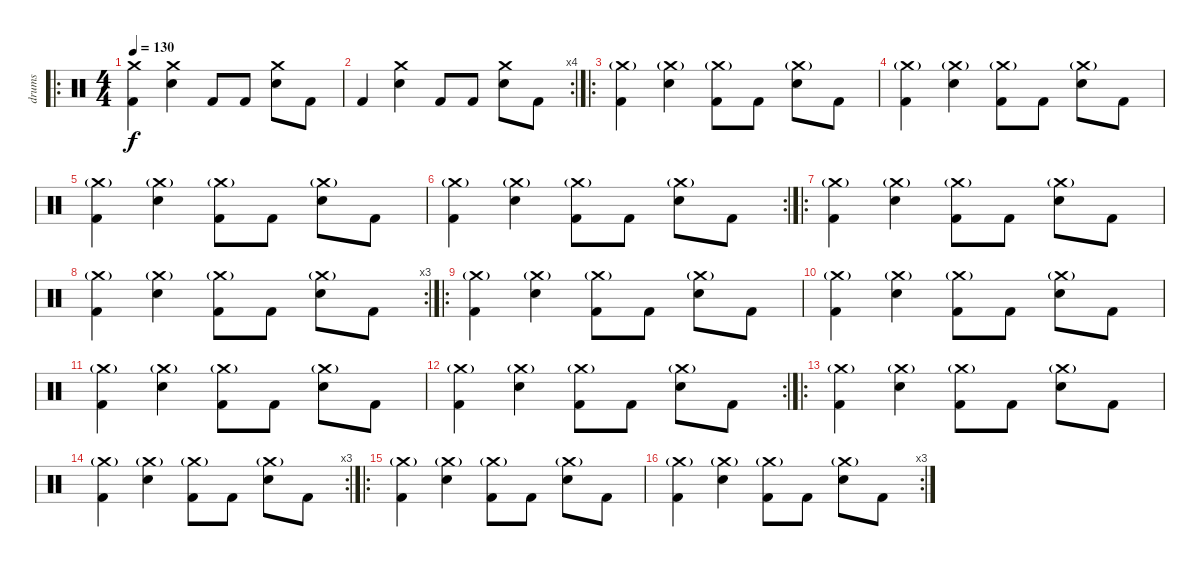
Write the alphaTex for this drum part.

\track ("drums" "drums") {instrument percussion}
\staff {score}
\articulation defaults
\ro
\ts (4 4)
\tempo 130
\clef neutral
\ks c
("Crash medium (hit)" "Kick (hit) 2").4{dy f} ("Crash medium (hit)" "Electric Snare (hit)").4 "Kick (hit) 2".8 "Kick (hit) 2".8 ("Crash medium (hit)" "Electric Snare (hit)").8 "Kick (hit) 2".8 |
\rc 4 "Kick (hit) 2".4
("Crash medium (hit)" "Electric Snare (hit)").4 "Kick (hit) 2".8 "Kick (hit) 2".8 ("Crash medium (hit)" "Electric Snare (hit)").8 "Kick (hit) 2".8 |
\ro
("Crash medium (hit)"{g} "Kick (hit) 2").4 ("Crash medium (hit)"{g} "Electric Snare (hit)").4 ("Crash medium (hit)"{g} "Kick (hit) 2").8 "Kick (hit) 2".8 ("Crash medium (hit)"{g} "Electric Snare (hit)").8 "Kick (hit) 2".8 |
("Crash medium (hit)"{g} "Kick (hit) 2").4 ("Crash medium (hit)"{g} "Electric Snare (hit)").4 ("Crash medium (hit)"{g} "Kick (hit) 2").8 "Kick (hit) 2".8 ("Crash medium (hit)"{g} "Electric Snare (hit)").8 "Kick (hit) 2".8 |
("Crash medium (hit)"{g} "Kick (hit) 2").4 ("Crash medium (hit)"{g} "Electric Snare (hit)").4 ("Crash medium (hit)"{g} "Kick (hit) 2").8 "Kick (hit) 2".8 ("Crash medium (hit)"{g} "Electric Snare (hit)").8 "Kick (hit) 2".8 |
\rc 2
("Crash medium (hit)"{g} "Kick (hit) 2").4 ("Crash medium (hit)"{g} "Electric Snare (hit)").4 ("Crash medium (hit)"{g} "Kick (hit) 2").8 "Kick (hit) 2".8 ("Crash medium (hit)"{g} "Electric Snare (hit)").8 "Kick (hit) 2".8 |
\ro
("Crash medium (hit)"{g} "Kick (hit) 2").4 ("Crash medium (hit)"{g} "Electric Snare (hit)").4 ("Crash medium (hit)"{g} "Kick (hit) 2").8 "Kick (hit) 2".8 ("Crash medium (hit)"{g} "Electric Snare (hit)").8 "Kick (hit) 2".8 |
\rc 3
("Crash medium (hit)"{g} "Kick (hit) 2").4 ("Crash medium (hit)"{g} "Electric Snare (hit)").4 ("Crash medium (hit)"{g} "Kick (hit) 2").8 "Kick (hit) 2".8 ("Crash medium (hit)"{g} "Electric Snare (hit)").8 "Kick (hit) 2".8 |
\ro
("Crash medium (hit)"{g} "Kick (hit) 2").4 ("Crash medium (hit)"{g} "Electric Snare (hit)").4 ("Crash medium (hit)"{g} "Kick (hit) 2").8 "Kick (hit) 2".8 ("Crash medium (hit)"{g} "Electric Snare (hit)").8 "Kick (hit) 2".8 |
("Crash medium (hit)"{g} "Kick (hit) 2").4 ("Crash medium (hit)"{g} "Electric Snare (hit)").4 ("Crash medium (hit)"{g} "Kick (hit) 2").8 "Kick (hit) 2".8 ("Crash medium (hit)"{g} "Electric Snare (hit)").8 "Kick (hit) 2".8 |
("Crash medium (hit)"{g} "Kick (hit) 2").4 ("Crash medium (hit)"{g} "Electric Snare (hit)").4 ("Crash medium (hit)"{g} "Kick (hit) 2").8 "Kick (hit) 2".8 ("Crash medium (hit)"{g} "Electric Snare (hit)").8 "Kick (hit) 2".8 |
\rc 2
("Crash medium (hit)"{g} "Kick (hit) 2").4 ("Crash medium (hit)"{g} "Electric Snare (hit)").4 ("Crash medium (hit)"{g} "Kick (hit) 2").8 "Kick (hit) 2".8 ("Crash medium (hit)"{g} "Electric Snare (hit)").8 "Kick (hit) 2".8 |
\ro
("Crash medium (hit)"{g} "Kick (hit) 2").4 ("Crash medium (hit)"{g} "Electric Snare (hit)").4 ("Crash medium (hit)"{g} "Kick (hit) 2").8 "Kick (hit) 2".8 ("Crash medium (hit)"{g} "Electric Snare (hit)").8 "Kick (hit) 2".8 |
\rc 3
("Crash medium (hit)"{g} "Kick (hit) 2").4 ("Crash medium (hit)"{g} "Electric Snare (hit)").4 ("Crash medium (hit)"{g} "Kick (hit) 2").8 "Kick (hit) 2".8 ("Crash medium (hit)"{g} "Electric Snare (hit)").8 "Kick (hit) 2".8 |
\ro
("Crash medium (hit)"{g} "Kick (hit) 2").4 ("Crash medium (hit)"{g} "Electric Snare (hit)").4 ("Crash medium (hit)"{g} "Kick (hit) 2").8 "Kick (hit) 2".8 ("Crash medium (hit)"{g} "Electric Snare (hit)").8 "Kick (hit) 2".8 |
\rc 3
("Crash medium (hit)"{g} "Kick (hit) 2").4 ("Crash medium (hit)"{g} "Electric Snare (hit)").4 ("Crash medium (hit)"{g} "Kick (hit) 2").8 "Kick (hit) 2".8 ("Crash medium (hit)"{g} "Electric Snare (hit)").8 "Kick (hit) 2".8
